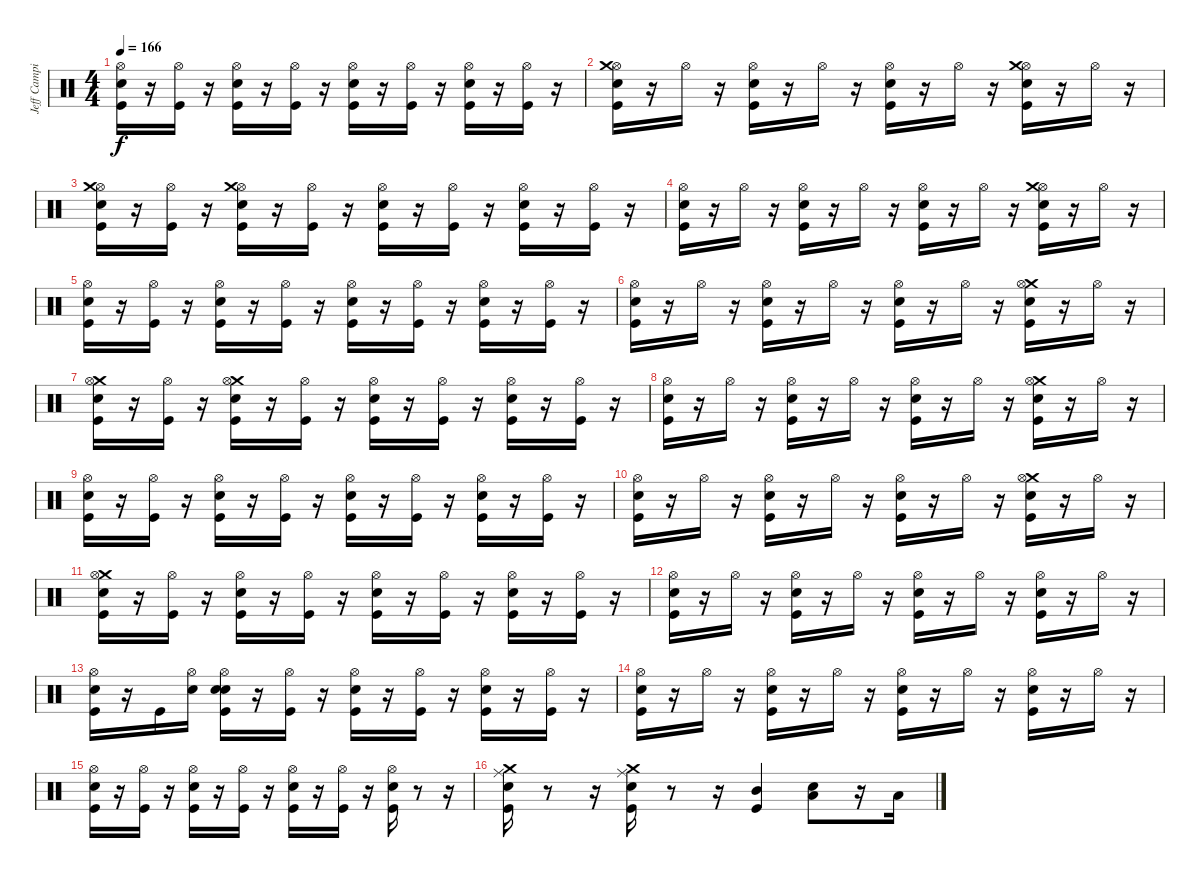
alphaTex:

\track ("Jeff Campitelli" "Jeff Campi") {instrument percussion}
\staff {score}
\articulation defaults
\ts (4 4)
\tempo 166
\clef neutral
\ks c
("Kick (hit)" "Electric Snare (hit)" "Hi-Hat (open)").16{dy f} r.16 ("Kick (hit)" "Hi-Hat (open)").16 r.16 ("Kick (hit)" "Hi-Hat (open)" "Electric Snare (hit)").16 r.16 ("Hi-Hat (open)" "Kick (hit)").16 r.16 ("Kick (hit)" "Hi-Hat (open)" "Electric Snare (hit)").16 r.16 ("Hi-Hat (open)" "Kick (hit)").16 r.16 ("Kick (hit)" "Hi-Hat (open)" "Electric Snare (hit)").16 r.16 ("Kick (hit)" "Hi-Hat (open)").16 r.16 |
("Kick (hit)" "Electric Snare (hit)" "Hi-Hat (open)" "Crash medium (hit)").16 r.16 "Hi-Hat (open)".16 r.16 ("Kick (hit)" "Hi-Hat (open)" "Electric Snare (hit)").16 r.16 "Hi-Hat (open)".16 r.16 ("Kick (hit)" "Hi-Hat (open)" "Electric Snare (hit)").16 r.16 "Hi-Hat (open)".16 r.16 ("Kick (hit)" "Hi-Hat (open)" "Electric Snare (hit)" "Crash medium (hit)").16 r.16 "Hi-Hat (open)".16 r.16 |
("Kick (hit)" "Electric Snare (hit)" "Hi-Hat (open)" "Crash medium (hit)").16 r.16 ("Kick (hit)" "Hi-Hat (open)").16 r.16 ("Kick (hit)" "Hi-Hat (open)" "Electric Snare (hit)" "Crash medium (hit)").16 r.16 ("Hi-Hat (open)" "Kick (hit)").16 r.16 ("Kick (hit)" "Hi-Hat (open)" "Electric Snare (hit)").16 r.16 ("Hi-Hat (open)" "Kick (hit)").16 r.16 ("Kick (hit)" "Hi-Hat (open)" "Electric Snare (hit)").16 r.16 ("Kick (hit)" "Hi-Hat (open)").16 r.16 |
("Kick (hit)" "Electric Snare (hit)" "Hi-Hat (open)").16 r.16 "Hi-Hat (open)".16 r.16 ("Kick (hit)" "Hi-Hat (open)" "Electric Snare (hit)").16 r.16 "Hi-Hat (open)".16 r.16 ("Kick (hit)" "Hi-Hat (open)" "Electric Snare (hit)").16 r.16 "Hi-Hat (open)".16 r.16 ("Kick (hit)" "Hi-Hat (open)" "Electric Snare (hit)" "Crash medium (hit)").16 r.16 "Hi-Hat (open)".16 r.16 |
("Kick (hit)" "Electric Snare (hit)" "Hi-Hat (open)").16 r.16 ("Kick (hit)" "Hi-Hat (open)").16 r.16 ("Kick (hit)" "Hi-Hat (open)" "Electric Snare (hit)").16 r.16 ("Hi-Hat (open)" "Kick (hit)").16 r.16 ("Kick (hit)" "Hi-Hat (open)" "Electric Snare (hit)").16 r.16 ("Hi-Hat (open)" "Kick (hit)").16 r.16 ("Kick (hit)" "Hi-Hat (open)" "Electric Snare (hit)").16 r.16 ("Kick (hit)" "Hi-Hat (open)").16 r.16 |
("Kick (hit)" "Electric Snare (hit)" "Hi-Hat (open)").16 r.16 "Hi-Hat (open)".16 r.16 ("Kick (hit)" "Electric Snare (hit)" "Hi-Hat (open)").16 r.16 "Hi-Hat (open)".16 r.16 ("Electric Snare (hit)" "Kick (hit)" "Hi-Hat (open)").16 r.16 "Hi-Hat (open)".16 r.16 ("Kick (hit)" "Electric Snare (hit)" "Crash medium (hit)" "Hi-Hat (open)").16 r.16 "Hi-Hat (open)".16 r.16 |
("Kick (hit)" "Electric Snare (hit)" "Crash medium (hit)" "Hi-Hat (open)").16 r.16 ("Kick (hit)" "Hi-Hat (open)").16 r.16 ("Kick (hit)" "Electric Snare (hit)" "Crash medium (hit)" "Hi-Hat (open)").16 r.16 ("Kick (hit)" "Hi-Hat (open)").16 r.16 ("Kick (hit)" "Electric Snare (hit)" "Hi-Hat (open)").16 r.16 ("Kick (hit)" "Hi-Hat (open)").16 r.16 ("Kick (hit)" "Electric Snare (hit)" "Hi-Hat (open)").16 r.16 ("Kick (hit)" "Hi-Hat (open)").16 r.16 |
("Kick (hit)" "Electric Snare (hit)" "Hi-Hat (open)").16 r.16 "Hi-Hat (open)".16 r.16 ("Kick (hit)" "Electric Snare (hit)" "Hi-Hat (open)").16 r.16 "Hi-Hat (open)".16 r.16 ("Electric Snare (hit)" "Kick (hit)" "Hi-Hat (open)").16 r.16 "Hi-Hat (open)".16 r.16 ("Kick (hit)" "Electric Snare (hit)" "Crash medium (hit)" "Hi-Hat (open)").16 r.16 "Hi-Hat (open)".16 r.16 |
("Kick (hit)" "Electric Snare (hit)" "Hi-Hat (open)").16 r.16 ("Kick (hit)" "Hi-Hat (open)").16 r.16 ("Kick (hit)" "Electric Snare (hit)" "Hi-Hat (open)").16 r.16 ("Kick (hit)" "Hi-Hat (open)").16 r.16 ("Kick (hit)" "Electric Snare (hit)" "Hi-Hat (open)").16 r.16 ("Kick (hit)" "Hi-Hat (open)").16 r.16 ("Kick (hit)" "Electric Snare (hit)" "Hi-Hat (open)").16 r.16 ("Kick (hit)" "Hi-Hat (open)").16 r.16 |
("Kick (hit)" "Electric Snare (hit)" "Hi-Hat (open)").16 r.16 "Hi-Hat (open)".16 r.16 ("Kick (hit)" "Electric Snare (hit)" "Hi-Hat (open)").16 r.16 "Hi-Hat (open)".16 r.16 ("Electric Snare (hit)" "Kick (hit)" "Hi-Hat (open)").16 r.16 "Hi-Hat (open)".16 r.16 ("Kick (hit)" "Electric Snare (hit)" "Crash medium (hit)" "Hi-Hat (open)").16 r.16 "Hi-Hat (open)".16 r.16 |
("Kick (hit)" "Crash medium (hit)" "Electric Snare (hit)" "Hi-Hat (open)").16 r.16 ("Kick (hit)" "Hi-Hat (open)").16 r.16 ("Kick (hit)" "Electric Snare (hit)" "Hi-Hat (open)").16 r.16 ("Kick (hit)" "Hi-Hat (open)").16 r.16 ("Kick (hit)" "Electric Snare (hit)" "Hi-Hat (open)").16 r.16 ("Kick (hit)" "Hi-Hat (open)").16 r.16 ("Kick (hit)" "Electric Snare (hit)" "Hi-Hat (open)").16 r.16 ("Kick (hit)" "Hi-Hat (open)").16 r.16 |
("Kick (hit)" "Electric Snare (hit)" "Hi-Hat (open)").16 r.16 "Hi-Hat (open)".16 r.16 ("Kick (hit)" "Electric Snare (hit)" "Hi-Hat (open)").16 r.16 "Hi-Hat (open)".16 r.16 ("Electric Snare (hit)" "Kick (hit)" "Hi-Hat (open)").16 r.16 "Hi-Hat (open)".16 r.16 ("Kick (hit)" "Electric Snare (hit)" "Hi-Hat (open)").16 r.16 "Hi-Hat (open)".16 r.16 |
("Kick (hit)" "Electric Snare (hit)" "Hi-Hat (open)").16 r.16 "Kick (hit)".16 ("Snare (hit)" "Hi-Hat (open)").16 ("Snare (hit)" "Kick (hit)" "Electric Snare (hit)" "Hi-Hat (open)").16 r.16 ("Kick (hit)" "Hi-Hat (open)").16 r.16 ("Kick (hit)" "Electric Snare (hit)" "Hi-Hat (open)").16 r.16 ("Kick (hit)" "Hi-Hat (open)").16 r.16 ("Kick (hit)" "Electric Snare (hit)" "Hi-Hat (open)").16 r.16 ("Kick (hit)" "Hi-Hat (open)").16 r.16 |
("Kick (hit)" "Electric Snare (hit)" "Hi-Hat (open)").16 r.16 "Hi-Hat (open)".16 r.16 ("Kick (hit)" "Electric Snare (hit)" "Hi-Hat (open)").16 r.16 "Hi-Hat (open)".16 r.16 ("Electric Snare (hit)" "Kick (hit)" "Hi-Hat (open)").16 r.16 "Hi-Hat (open)".16 r.16 ("Kick (hit)" "Electric Snare (hit)" "Hi-Hat (open)").16 r.16 "Hi-Hat (open)".16 r.16 |
("Kick (hit)" "Electric Snare (hit)" "Hi-Hat (open)").16 r.16 ("Kick (hit)" "Hi-Hat (open)").16 r.16 ("Kick (hit)" "Electric Snare (hit)" "Hi-Hat (open)").16 r.16 ("Kick (hit)" "Hi-Hat (open)").16 r.16 ("Kick (hit)" "Electric Snare (hit)" "Hi-Hat (open)").16 r.16 ("Kick (hit)" "Hi-Hat (open)").16 r.16 ("Kick (hit)" "Electric Snare (hit)" "Hi-Hat (open)").16 r.8 r.16 |
("Ride (middle)" "Crash medium (hit)" "Kick (hit)" "Electric Snare (hit)").16 r.8 r.16 ("Kick (hit)" "Crash medium (hit)" "Electric Snare (hit)" "Ride (middle)").16 r.8 r.16 ("Kick (hit)" "Mid Tom (hit)").4 ("Snare (hit)" "Low Tom (hit)").8 r.16 "Low Tom (hit)".16
